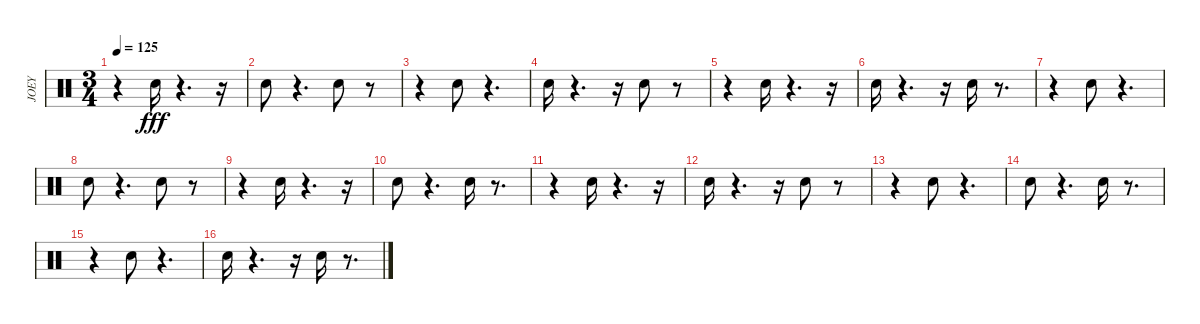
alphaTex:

\track ("JOEY" "JOEY") {instrument percussion}
\staff {score}
\articulation defaults
\ts (3 4)
\tempo 125
\clef neutral
\ks c
r.4{dy fff} "Snare (hit) 2".16 r.4{d} r.16 |
"Snare (hit) 2".8 r.4{d} "Snare (hit) 2".8 r.8 |
r.4 "Snare (hit) 2".8 r.4{d} |
"Snare (hit) 2".16 r.4{d} r.16 "Snare (hit) 2".8 r.8 |
r.4 "Snare (hit) 2".16 r.4{d} r.16 |
"Snare (hit) 2".16 r.4{d} r.16 "Snare (hit) 2".16 r.8{d} |
r.4 "Snare (hit) 2".8 r.4{d} |
"Snare (hit) 2".8 r.4{d} "Snare (hit) 2".8 r.8 |
r.4 "Snare (hit) 2".16 r.4{d} r.16 |
"Snare (hit) 2".8 r.4{d} "Snare (hit) 2".16 r.8{d} |
r.4 "Snare (hit) 2".16 r.4{d} r.16 |
"Snare (hit) 2".16 r.4{d} r.16 "Snare (hit) 2".8 r.8 |
r.4 "Snare (hit) 2".8 r.4{d} |
"Snare (hit) 2".8 r.4{d} "Snare (hit) 2".16 r.8{d} |
r.4 "Snare (hit) 2".8 r.4{d} |
"Snare (hit) 2".16 r.4{d} r.16 "Snare (hit) 2".16 r.8{d}
